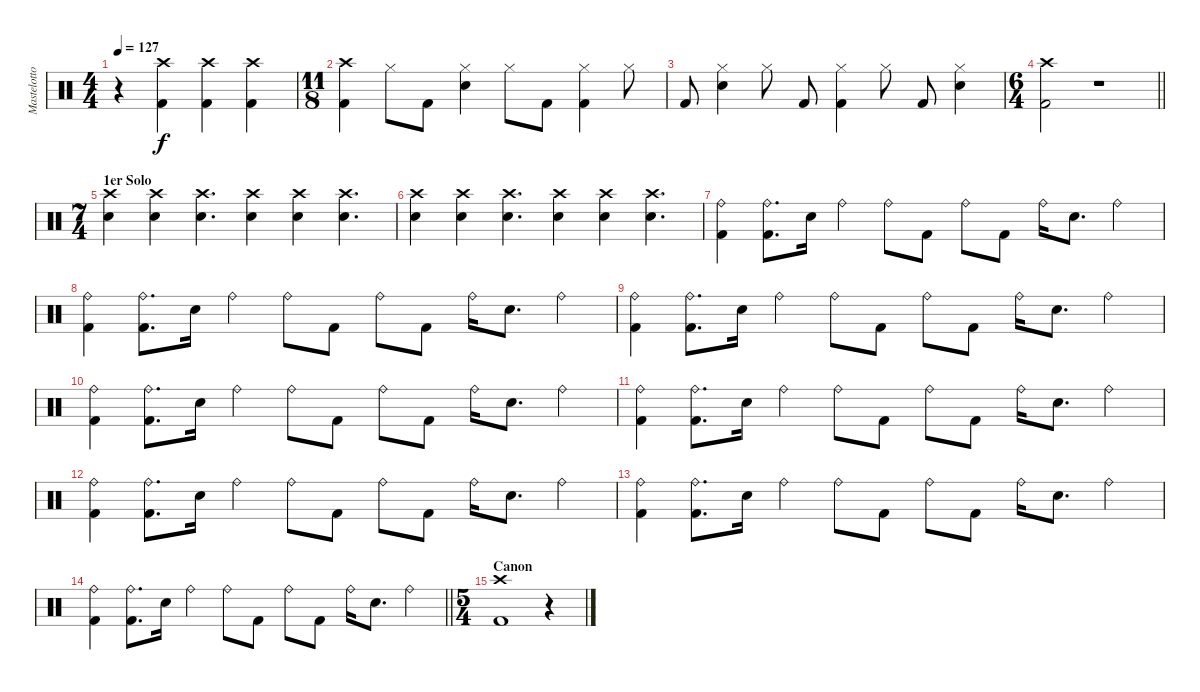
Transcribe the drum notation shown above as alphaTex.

\track ("Mastelotto" "Mastelotto") {instrument percussion}
\staff {score}
\articulation defaults
\ts (4 4)
\tempo 127
\clef neutral
\ks c
r.4{dy f} ("Crash high (hit)" "Kick (hit) 2").4 ("Crash high (hit)" "Kick (hit) 2").4 ("Crash high (hit)" "Kick (hit) 2").4 |
\ts (11 8)
("Crash high (hit)" "Kick (hit) 2").4 "Hi-Hat (closed)".8 "Kick (hit) 2".8 ("Hi-Hat (closed)" "Electric Snare (hit)").4 "Hi-Hat (closed)".8 "Kick (hit) 2".8 ("Hi-Hat (closed)" "Kick (hit) 2").4 "Hi-Hat (closed)".8 |
"Kick (hit) 2".8 ("Hi-Hat (closed)" "Electric Snare (hit)").4 "Hi-Hat (closed)".8 "Kick (hit) 2".8 ("Hi-Hat (closed)" "Kick (hit) 2").4 "Hi-Hat (closed)".8 "Kick (hit) 2".8 ("Hi-Hat (closed)" "Electric Snare (hit)").4 |
\ts (6 4)
\barLineRight lightlight
("Crash high (hit)" "Kick (hit) 2").2 r.1 |
\ts (7 4)
\section ("" "1er Solo")
("Crash high (hit)" "Electric Snare (hit)").4 ("Crash high (hit)" "Electric Snare (hit)").4 ("Crash high (hit)" "Electric Snare (hit)").4{d} ("Crash high (hit)" "Electric Snare (hit)").4 ("Crash high (hit)" "Electric Snare (hit)").4 ("Crash high (hit)" "Electric Snare (hit)").4{d} |
("Crash high (hit)" "Electric Snare (hit)").4 ("Crash high (hit)" "Electric Snare (hit)").4 ("Crash high (hit)" "Electric Snare (hit)").4{d} ("Crash high (hit)" "Electric Snare (hit)").4 ("Crash high (hit)" "Electric Snare (hit)").4 ("Crash high (hit)" "Electric Snare (hit)").4{d} |
("Ride (bell)" "Kick (hit) 2").4 ("Ride (bell)" "Kick (hit) 2").8{d} "Electric Snare (hit)".16 "Ride (bell)".4 "Ride (bell)".8 "Kick (hit) 2".8 "Ride (bell)".8 "Kick (hit) 2".8 "Ride (bell)".16 "Electric Snare (hit)".8{d} "Ride (bell)".4 |
("Ride (bell)" "Kick (hit) 2").4 ("Ride (bell)" "Kick (hit) 2").8{d} "Electric Snare (hit)".16 "Ride (bell)".4 "Ride (bell)".8 "Kick (hit) 2".8 "Ride (bell)".8 "Kick (hit) 2".8 "Ride (bell)".16 "Electric Snare (hit)".8{d} "Ride (bell)".4 |
("Ride (bell)" "Kick (hit) 2").4 ("Ride (bell)" "Kick (hit) 2").8{d} "Electric Snare (hit)".16 "Ride (bell)".4 "Ride (bell)".8 "Kick (hit) 2".8 "Ride (bell)".8 "Kick (hit) 2".8 "Ride (bell)".16 "Electric Snare (hit)".8{d} "Ride (bell)".4 |
("Ride (bell)" "Kick (hit) 2").4 ("Ride (bell)" "Kick (hit) 2").8{d} "Electric Snare (hit)".16 "Ride (bell)".4 "Ride (bell)".8 "Kick (hit) 2".8 "Ride (bell)".8 "Kick (hit) 2".8 "Ride (bell)".16 "Electric Snare (hit)".8{d} "Ride (bell)".4 |
("Ride (bell)" "Kick (hit) 2").4 ("Ride (bell)" "Kick (hit) 2").8{d} "Electric Snare (hit)".16 "Ride (bell)".4 "Ride (bell)".8 "Kick (hit) 2".8 "Ride (bell)".8 "Kick (hit) 2".8 "Ride (bell)".16 "Electric Snare (hit)".8{d} "Ride (bell)".4 |
("Ride (bell)" "Kick (hit) 2").4 ("Ride (bell)" "Kick (hit) 2").8{d} "Electric Snare (hit)".16 "Ride (bell)".4 "Ride (bell)".8 "Kick (hit) 2".8 "Ride (bell)".8 "Kick (hit) 2".8 "Ride (bell)".16 "Electric Snare (hit)".8{d} "Ride (bell)".4 |
("Ride (bell)" "Kick (hit) 2").4 ("Ride (bell)" "Kick (hit) 2").8{d} "Electric Snare (hit)".16 "Ride (bell)".4 "Ride (bell)".8 "Kick (hit) 2".8 "Ride (bell)".8 "Kick (hit) 2".8 "Ride (bell)".16 "Electric Snare (hit)".8{d} "Ride (bell)".4 |
\barLineRight lightlight
("Ride (bell)" "Kick (hit) 2").4 ("Ride (bell)" "Kick (hit) 2").8{d} "Electric Snare (hit)".16 "Ride (bell)".4 "Ride (bell)".8 "Kick (hit) 2".8 "Ride (bell)".8 "Kick (hit) 2".8 "Ride (bell)".16 "Electric Snare (hit)".8{d} "Ride (bell)".4 |
\ts (5 4)
\section ("" "Canon")
("Crash high (hit)" "Kick (hit) 2").1 r.4
